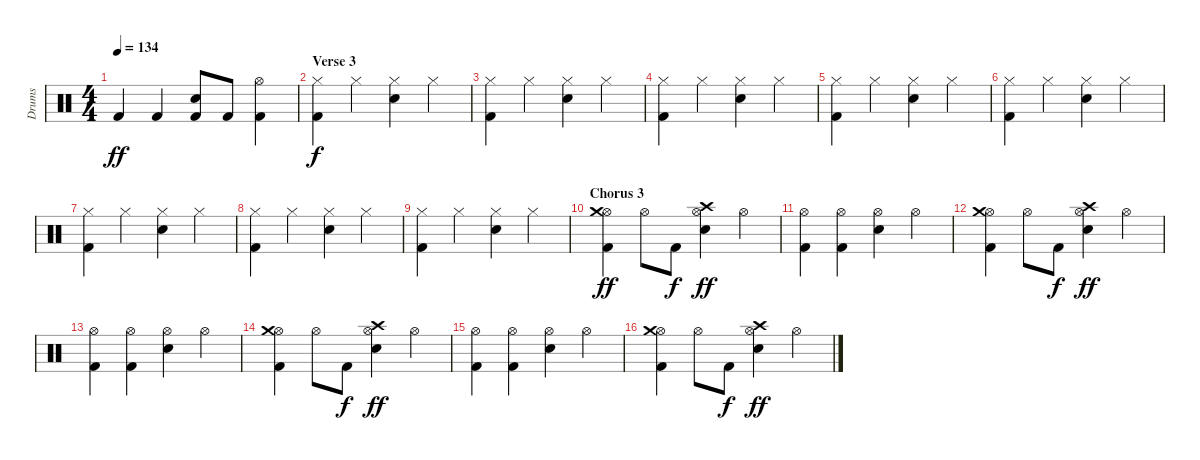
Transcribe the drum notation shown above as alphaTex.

\track ("Drums" "Drums") {instrument percussion}
\staff {score}
\articulation defaults
\ts (4 4)
\tempo 134
\clef neutral
\ks c "Kick (hit) 2".4{dy ff} "Kick (hit) 2".4
("Snare (hit) 2" "Kick (hit) 2").8 "Kick (hit) 2".8 ("Hi-Hat (open)" "Kick (hit) 2").4 |
\section ("" "Verse 3")
("Hi-Hat (closed)" "Kick (hit) 2").4{dy f} "Hi-Hat (closed)".4 ("Hi-Hat (closed)" "Snare (hit) 2").4 "Hi-Hat (closed)".4 |
("Hi-Hat (closed)" "Kick (hit) 2").4 "Hi-Hat (closed)".4 ("Hi-Hat (closed)" "Snare (hit) 2").4 "Hi-Hat (closed)".4 |
("Hi-Hat (closed)" "Kick (hit) 2").4 "Hi-Hat (closed)".4 ("Hi-Hat (closed)" "Snare (hit) 2").4 "Hi-Hat (closed)".4 |
("Hi-Hat (closed)" "Kick (hit) 2").4 "Hi-Hat (closed)".4 ("Hi-Hat (closed)" "Snare (hit) 2").4 "Hi-Hat (closed)".4 |
("Hi-Hat (closed)" "Kick (hit) 2").4 "Hi-Hat (closed)".4 ("Hi-Hat (closed)" "Snare (hit) 2").4 "Hi-Hat (closed)".4 |
("Hi-Hat (closed)" "Kick (hit) 2").4 "Hi-Hat (closed)".4 ("Hi-Hat (closed)" "Snare (hit) 2").4 "Hi-Hat (closed)".4 |
("Hi-Hat (closed)" "Kick (hit) 2").4 "Hi-Hat (closed)".4 ("Hi-Hat (closed)" "Snare (hit) 2").4 "Hi-Hat (closed)".4 |
("Hi-Hat (closed)" "Kick (hit) 2").4 "Hi-Hat (closed)".4 ("Hi-Hat (closed)" "Snare (hit) 2").4 "Hi-Hat (closed)".4 |
\section ("" "Chorus 3")
("Hi-Hat (open)" "Crash medium (hit)" "Kick (hit) 2").4{dy ff} "Hi-Hat (open)".8 "Kick (hit) 2".8{dy f} ("Hi-Hat (open)" "Crash high (hit)" "Snare (hit) 2").4{dy ff} "Hi-Hat (open)".4 |
("Hi-Hat (open)" "Kick (hit) 2").4 ("Hi-Hat (open)" "Kick (hit) 2").4 ("Hi-Hat (open)" "Snare (hit) 2").4 "Hi-Hat (open)".4 |
("Hi-Hat (open)" "Crash medium (hit)" "Kick (hit) 2").4 "Hi-Hat (open)".8 "Kick (hit) 2".8{dy f} ("Hi-Hat (open)" "Crash high (hit)" "Snare (hit) 2").4{dy ff} "Hi-Hat (open)".4 |
("Hi-Hat (open)" "Kick (hit) 2").4 ("Hi-Hat (open)" "Kick (hit) 2").4 ("Hi-Hat (open)" "Snare (hit) 2").4 "Hi-Hat (open)".4 |
("Hi-Hat (open)" "Crash medium (hit)" "Kick (hit) 2").4 "Hi-Hat (open)".8 "Kick (hit) 2".8{dy f} ("Hi-Hat (open)" "Crash high (hit)" "Snare (hit) 2").4{dy ff} "Hi-Hat (open)".4 |
("Hi-Hat (open)" "Kick (hit) 2").4 ("Hi-Hat (open)" "Kick (hit) 2").4 ("Hi-Hat (open)" "Snare (hit) 2").4 "Hi-Hat (open)".4 |
("Hi-Hat (open)" "Crash medium (hit)" "Kick (hit) 2").4 "Hi-Hat (open)".8 "Kick (hit) 2".8{dy f} ("Hi-Hat (open)" "Crash high (hit)" "Snare (hit) 2").4{dy ff} "Hi-Hat (open)".4
